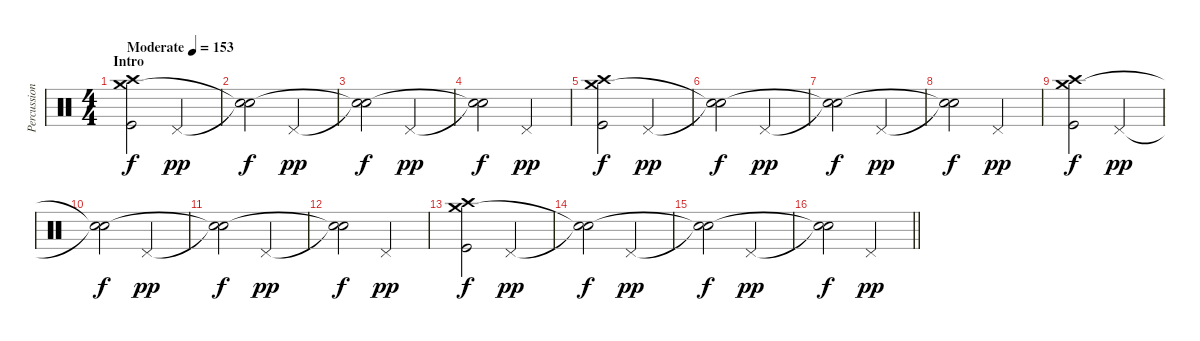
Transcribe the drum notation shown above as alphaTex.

\track ("Percussions" "Percussion") {instrument percussion}
\staff {score}
\articulation defaults
\ts (4 4)
\section ("" "Intro")
\tempo (153 "Moderate")
\clef neutral
\ks c
("Crash high (hit)" "Crash medium (hit)" "Kick (hit)").2{dy f} "Pedal Hi-Hat (hit)".2{dy pp} |
("Snare (hit)"{t} "Snare (hit)"{t}).2{dy f} "Pedal Hi-Hat (hit)".2{dy pp} |
("Snare (hit)"{t} "Snare (hit)"{t}).2{dy f} "Pedal Hi-Hat (hit)".2{dy pp} |
("Snare (hit)"{t} "Snare (hit)"{t}).2{dy f} "Pedal Hi-Hat (hit)".2{dy pp} |
("Crash high (hit)" "Crash medium (hit)" "Kick (hit)").2{dy f} "Pedal Hi-Hat (hit)".2{dy pp} |
("Snare (hit)"{t} "Snare (hit)"{t}).2{dy f} "Pedal Hi-Hat (hit)".2{dy pp} |
("Snare (hit)"{t} "Snare (hit)"{t}).2{dy f} "Pedal Hi-Hat (hit)".2{dy pp} |
("Snare (hit)"{t} "Snare (hit)"{t}).2{dy f} "Pedal Hi-Hat (hit)".2{dy pp} |
("Crash high (hit)" "Crash medium (hit)" "Kick (hit)").2{dy f} "Pedal Hi-Hat (hit)".2{dy pp} |
("Snare (hit)"{t} "Snare (hit)"{t}).2{dy f} "Pedal Hi-Hat (hit)".2{dy pp} |
("Snare (hit)"{t} "Snare (hit)"{t}).2{dy f} "Pedal Hi-Hat (hit)".2{dy pp} |
("Snare (hit)"{t} "Snare (hit)"{t}).2{dy f} "Pedal Hi-Hat (hit)".2{dy pp} |
("Crash high (hit)" "Crash medium (hit)" "Kick (hit)").2{dy f} "Pedal Hi-Hat (hit)".2{dy pp} |
("Snare (hit)"{t} "Snare (hit)"{t}).2{dy f} "Pedal Hi-Hat (hit)".2{dy pp} |
("Snare (hit)"{t} "Snare (hit)"{t}).2{dy f} "Pedal Hi-Hat (hit)".2{dy pp} |
\barLineRight lightlight
("Snare (hit)"{t} "Snare (hit)"{t}).2{dy f} "Pedal Hi-Hat (hit)".2{dy pp}
